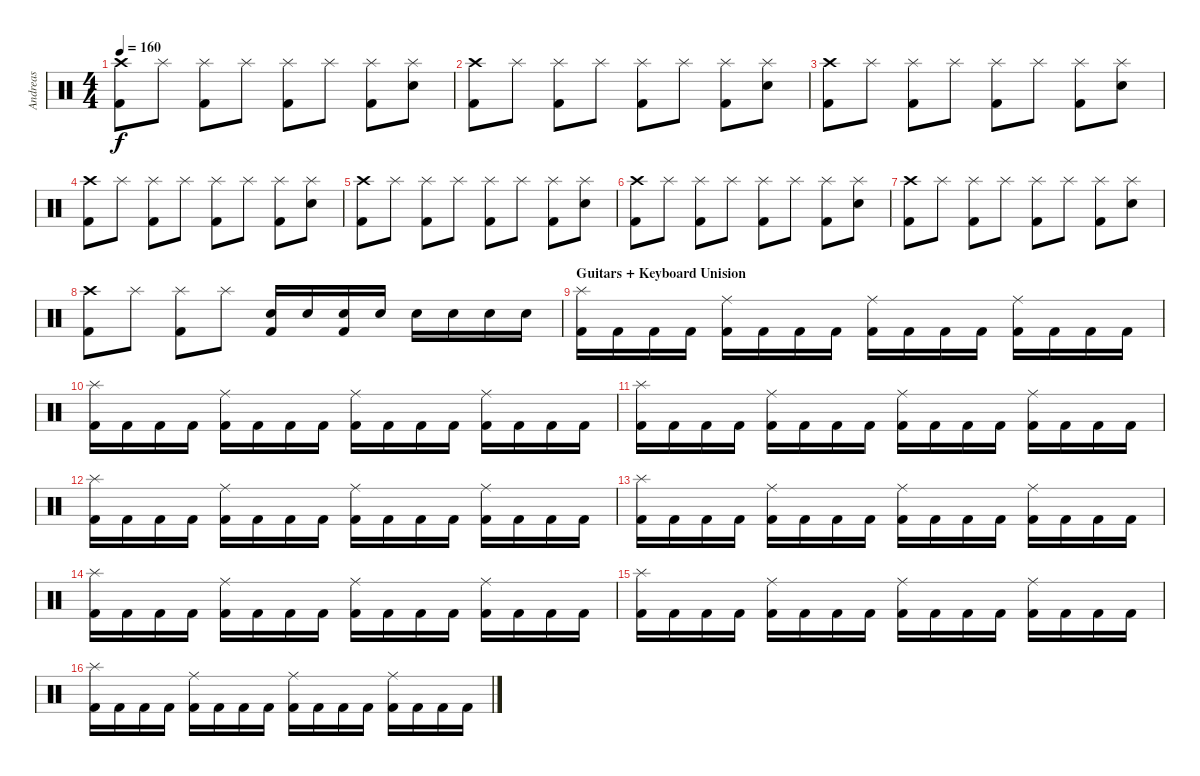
\track ("Andreas" "Andreas") {instrument percussion}
\staff {score}
\articulation defaults
\ts (4 4)
\tempo 160
\clef neutral
\ks c
("Crash high (hit)" "Kick (hit) 2").8{dy f} "Splash (hit)".8 ("Splash (hit)" "Kick (hit) 2").8 "Splash (hit)".8 ("Splash (hit)" "Kick (hit) 2").8 "Splash (hit)".8 ("Splash (hit)" "Kick (hit) 2").8 ("Splash (hit)" "Snare (hit) 2").8 |
("Crash high (hit)" "Kick (hit) 2").8 "Splash (hit)".8 ("Splash (hit)" "Kick (hit) 2").8 "Splash (hit)".8 ("Splash (hit)" "Kick (hit) 2").8 "Splash (hit)".8 ("Splash (hit)" "Kick (hit) 2").8 ("Splash (hit)" "Snare (hit) 2").8 |
("Crash high (hit)" "Kick (hit) 2").8 "Splash (hit)".8 ("Splash (hit)" "Kick (hit) 2").8 "Splash (hit)".8 ("Splash (hit)" "Kick (hit) 2").8 "Splash (hit)".8 ("Splash (hit)" "Kick (hit) 2").8 ("Splash (hit)" "Snare (hit) 2").8 |
("Crash high (hit)" "Kick (hit) 2").8 "Splash (hit)".8 ("Splash (hit)" "Kick (hit) 2").8 "Splash (hit)".8 ("Splash (hit)" "Kick (hit) 2").8 "Splash (hit)".8 ("Splash (hit)" "Kick (hit) 2").8 ("Splash (hit)" "Snare (hit) 2").8 |
("Crash high (hit)" "Kick (hit) 2").8 "Splash (hit)".8 ("Splash (hit)" "Kick (hit) 2").8 "Splash (hit)".8 ("Splash (hit)" "Kick (hit) 2").8 "Splash (hit)".8 ("Splash (hit)" "Kick (hit) 2").8 ("Splash (hit)" "Snare (hit) 2").8 |
("Crash high (hit)" "Kick (hit) 2").8 "Splash (hit)".8 ("Splash (hit)" "Kick (hit) 2").8 "Splash (hit)".8 ("Splash (hit)" "Kick (hit) 2").8 "Splash (hit)".8 ("Splash (hit)" "Kick (hit) 2").8 ("Splash (hit)" "Snare (hit) 2").8 |
("Crash high (hit)" "Kick (hit) 2").8 "Splash (hit)".8 ("Splash (hit)" "Kick (hit) 2").8 "Splash (hit)".8 ("Splash (hit)" "Kick (hit) 2").8 "Splash (hit)".8 ("Splash (hit)" "Kick (hit) 2").8 ("Splash (hit)" "Snare (hit) 2").8 |
("Crash high (hit)" "Kick (hit) 2").8 "Splash (hit)".8 ("Splash (hit)" "Kick (hit) 2").8 "Splash (hit)".8 ("Snare (hit) 2" "Kick (hit) 2").16 "Snare (hit) 2".16 ("Snare (hit) 2" "Kick (hit) 2").16 "Snare (hit) 2".16 "Snare (hit) 2".16 "Snare (hit) 2".16 "Snare (hit) 2".16 "Snare (hit) 2".16 |
\section ("" "Guitars + Keyboard Unision")
("Splash (hit)" "Kick (hit) 2").16 "Kick (hit) 2".16 "Kick (hit) 2".16 "Kick (hit) 2".16 ("Ride (middle)" "Kick (hit) 2").16 "Kick (hit) 2".16 "Kick (hit) 2".16 "Kick (hit) 2".16 ("Ride (middle)" "Kick (hit) 2").16 "Kick (hit) 2".16 "Kick (hit) 2".16 "Kick (hit) 2".16 ("Ride (middle)" "Kick (hit) 2").16 "Kick (hit) 2".16 "Kick (hit) 2".16 "Kick (hit) 2".16 |
("Splash (hit)" "Kick (hit) 2").16 "Kick (hit) 2".16 "Kick (hit) 2".16 "Kick (hit) 2".16 ("Ride (middle)" "Kick (hit) 2").16 "Kick (hit) 2".16 "Kick (hit) 2".16 "Kick (hit) 2".16 ("Ride (middle)" "Kick (hit) 2").16 "Kick (hit) 2".16 "Kick (hit) 2".16 "Kick (hit) 2".16 ("Ride (middle)" "Kick (hit) 2").16 "Kick (hit) 2".16 "Kick (hit) 2".16 "Kick (hit) 2".16 |
("Splash (hit)" "Kick (hit) 2").16 "Kick (hit) 2".16 "Kick (hit) 2".16 "Kick (hit) 2".16 ("Ride (middle)" "Kick (hit) 2").16 "Kick (hit) 2".16 "Kick (hit) 2".16 "Kick (hit) 2".16 ("Ride (middle)" "Kick (hit) 2").16 "Kick (hit) 2".16 "Kick (hit) 2".16 "Kick (hit) 2".16 ("Ride (middle)" "Kick (hit) 2").16 "Kick (hit) 2".16 "Kick (hit) 2".16 "Kick (hit) 2".16 |
("Splash (hit)" "Kick (hit) 2").16 "Kick (hit) 2".16 "Kick (hit) 2".16 "Kick (hit) 2".16 ("Ride (middle)" "Kick (hit) 2").16 "Kick (hit) 2".16 "Kick (hit) 2".16 "Kick (hit) 2".16 ("Ride (middle)" "Kick (hit) 2").16 "Kick (hit) 2".16 "Kick (hit) 2".16 "Kick (hit) 2".16 ("Ride (middle)" "Kick (hit) 2").16 "Kick (hit) 2".16 "Kick (hit) 2".16 "Kick (hit) 2".16 |
("Splash (hit)" "Kick (hit) 2").16 "Kick (hit) 2".16 "Kick (hit) 2".16 "Kick (hit) 2".16 ("Ride (middle)" "Kick (hit) 2").16 "Kick (hit) 2".16 "Kick (hit) 2".16 "Kick (hit) 2".16 ("Ride (middle)" "Kick (hit) 2").16 "Kick (hit) 2".16 "Kick (hit) 2".16 "Kick (hit) 2".16 ("Ride (middle)" "Kick (hit) 2").16 "Kick (hit) 2".16 "Kick (hit) 2".16 "Kick (hit) 2".16 |
("Splash (hit)" "Kick (hit) 2").16 "Kick (hit) 2".16 "Kick (hit) 2".16 "Kick (hit) 2".16 ("Ride (middle)" "Kick (hit) 2").16 "Kick (hit) 2".16 "Kick (hit) 2".16 "Kick (hit) 2".16 ("Ride (middle)" "Kick (hit) 2").16 "Kick (hit) 2".16 "Kick (hit) 2".16 "Kick (hit) 2".16 ("Ride (middle)" "Kick (hit) 2").16 "Kick (hit) 2".16 "Kick (hit) 2".16 "Kick (hit) 2".16 |
("Splash (hit)" "Kick (hit) 2").16 "Kick (hit) 2".16 "Kick (hit) 2".16 "Kick (hit) 2".16 ("Ride (middle)" "Kick (hit) 2").16 "Kick (hit) 2".16 "Kick (hit) 2".16 "Kick (hit) 2".16 ("Ride (middle)" "Kick (hit) 2").16 "Kick (hit) 2".16 "Kick (hit) 2".16 "Kick (hit) 2".16 ("Ride (middle)" "Kick (hit) 2").16 "Kick (hit) 2".16 "Kick (hit) 2".16 "Kick (hit) 2".16 |
("Splash (hit)" "Kick (hit) 2").16 "Kick (hit) 2".16 "Kick (hit) 2".16 "Kick (hit) 2".16 ("Ride (middle)" "Kick (hit) 2").16 "Kick (hit) 2".16 "Kick (hit) 2".16 "Kick (hit) 2".16 ("Ride (middle)" "Kick (hit) 2").16 "Kick (hit) 2".16 "Kick (hit) 2".16 "Kick (hit) 2".16 ("Ride (middle)" "Kick (hit) 2").16 "Kick (hit) 2".16 "Kick (hit) 2".16 "Kick (hit) 2".16
